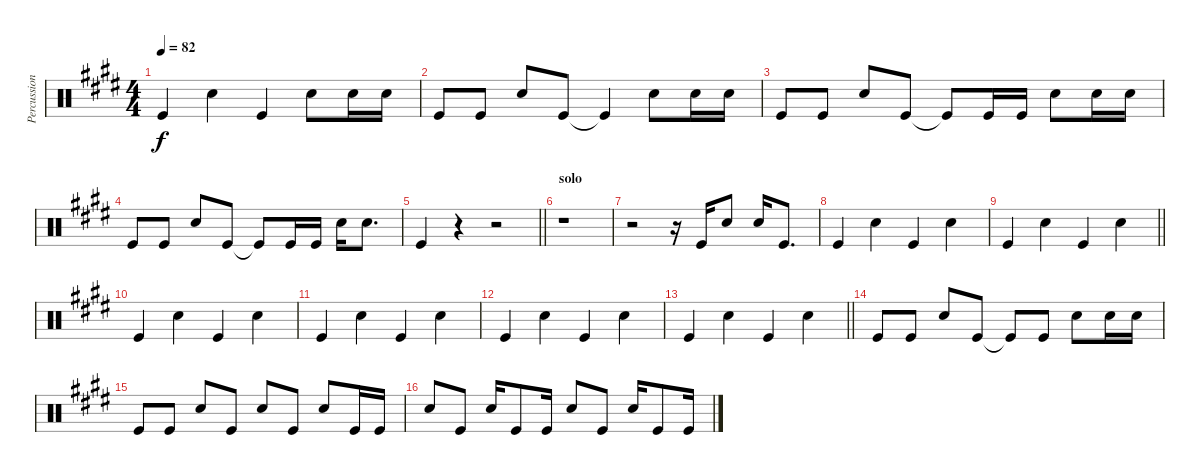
\track ("Percussion" "Percussion") {instrument percussion}
\staff {score}
\articulation defaults
\ts (4 4)
\tempo 82
\clef neutral
\ks e "Kick (hit)".4{dy f} "Snare (hit) 2".4 "Kick (hit)".4 "Snare (hit) 2".8 "Snare (hit) 2".16 "Snare (hit) 2".16
|
"Kick (hit)".8 "Kick (hit)".8 "Snare (hit) 2".8 "Kick (hit)".8 "Kick (hit)"{t}.4 "Snare (hit) 2".8 "Snare (hit) 2".16 "Snare (hit) 2".16 |
"Kick (hit)".8 "Kick (hit)".8 "Snare (hit) 2".8 "Kick (hit)".8 "Kick (hit)"{t}.8 "Kick (hit)".16 "Kick (hit)".16 "Snare (hit) 2".8 "Snare (hit) 2".16 "Snare (hit) 2".16 |
"Kick (hit)".8 "Kick (hit)".8 "Snare (hit) 2".8 "Kick (hit)".8 "Kick (hit)"{t}.8 "Kick (hit)".16 "Kick (hit)".16 "Snare (hit) 2".16 "Snare (hit) 2".8{d} |
\barLineRight lightlight "Kick (hit)".4
r.4 r.2 |
\section ("" "solo")
r.1 |
r.2 r.16 "Kick (hit)".16 "Snare (hit) 2".8 "Snare (hit) 2".16 "Kick (hit)".8{d} |
"Kick (hit)".4 "Snare (hit) 2".4 "Kick (hit)".4 "Snare (hit) 2".4 |
\barLineRight lightlight "Kick (hit)".4 "Snare (hit) 2".4 "Kick (hit)".4 "Snare (hit) 2".4
|
"Kick (hit)".4 "Snare (hit) 2".4 "Kick (hit)".4 "Snare (hit) 2".4 |
"Kick (hit)".4 "Snare (hit) 2".4 "Kick (hit)".4 "Snare (hit) 2".4 |
"Kick (hit)".4 "Snare (hit) 2".4 "Kick (hit)".4 "Snare (hit) 2".4 |
\barLineRight lightlight "Kick (hit)".4 "Snare (hit) 2".4 "Kick (hit)".4 "Snare (hit) 2".4
|
"Kick (hit)".8 "Kick (hit)".8 "Snare (hit) 2".8 "Kick (hit)".8 "Kick (hit)"{t}.8 "Kick (hit)".8 "Snare (hit) 2".8 "Snare (hit) 2".16 "Snare (hit) 2".16 |
"Kick (hit)".8 "Kick (hit)".8 "Snare (hit) 2".8 "Kick (hit)".8 "Snare (hit) 2".8 "Kick (hit)".8 "Snare (hit) 2".8 "Kick (hit)".16 "Kick (hit)".16 |
"Snare (hit) 2".8 "Kick (hit)".8 "Snare (hit) 2".16 "Kick (hit)".8 "Kick (hit)".16 "Snare (hit) 2".8 "Kick (hit)".8 "Snare (hit) 2".16 "Kick (hit)".8 "Kick (hit)".16
